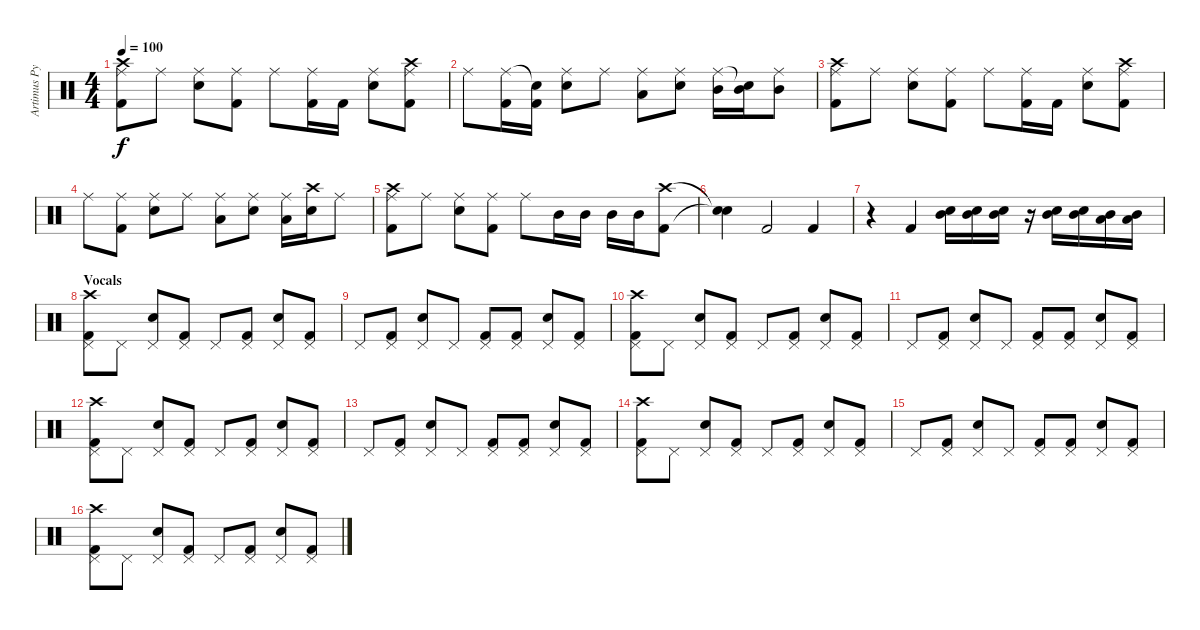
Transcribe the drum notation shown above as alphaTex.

\track ("Artimus Pyle " "Artimus Py") {instrument percussion}
\staff {score}
\articulation defaults
\ts (4 4)
\tempo 100
\clef neutral
\ks c
("Crash high (hit)" "Ride (middle)" "Kick (hit) 2").8{dy f} "Ride (middle)".8 ("Ride (middle)" "Electric Snare (hit)").8 ("Ride (middle)" "Kick (hit) 2").8 "Ride (middle)".8 ("Ride (middle)" "Kick (hit) 2").16 "Kick (hit) 2".16 ("Ride (middle)" "Electric Snare (hit)").8 ("Crash high (hit)" "Ride (middle)" "Kick (hit) 2").8 |
"Ride (middle)".8 ("Ride (middle)" "Kick (hit) 2").16 ("Snare (hit)"{t} "Kick (hit) 2").16 ("Ride (middle)" "Electric Snare (hit)").8 "Ride (middle)".8 ("Ride (middle)" "Low Tom (hit)").8 ("Ride (middle)" "Electric Snare (hit)").8 ("Ride (middle)" "Mid Tom (hit)").16 ("Snare (hit)"{t} "Mid Tom (hit)").16 ("Ride (middle)" "Mid Tom (hit)").8 |
("Crash high (hit)" "Ride (middle)" "Kick (hit) 2").8 "Ride (middle)".8 ("Ride (middle)" "Electric Snare (hit)").8 ("Ride (middle)" "Kick (hit) 2").8 "Ride (middle)".8 ("Ride (middle)" "Kick (hit) 2").16 "Kick (hit) 2".16 ("Ride (middle)" "Electric Snare (hit)").8 ("Crash high (hit)" "Ride (middle)" "Kick (hit) 2").8 |
"Ride (middle)".8 ("Ride (middle)" "Kick (hit) 2").8 ("Ride (middle)" "Electric Snare (hit)").8 "Ride (middle)".8 ("Ride (middle)" "Low Tom (hit)").8 ("Ride (middle)" "Electric Snare (hit)").8 ("Ride (middle)" "Low Tom (hit)").16 ("Crash high (hit)" "Electric Snare (hit)").16 "Ride (middle)".8 |
("Crash high (hit)" "Ride (middle)" "Kick (hit) 2").8 "Ride (middle)".8 ("Ride (middle)" "Electric Snare (hit)").8 ("Ride (middle)" "Kick (hit) 2").8 "Ride (middle)".8 "Mid Tom (hit)".16 "Mid Tom (hit)".16 "Mid Tom (hit)".16 "Mid Tom (hit)".16 ("Crash high (hit)" "Kick (hit) 2").8 |
("Snare (hit)"{t} "Snare (hit)"{t}).4 "Kick (hit) 2".2 "Kick (hit) 2".4 |
r.4 "Kick (hit) 2".4 ("Electric Snare (hit)" "Mid Tom (hit)").16 ("Electric Snare (hit)" "Mid Tom (hit)").16 ("Electric Snare (hit)" "Mid Tom (hit)").16 r.16 ("Electric Snare (hit)" "Mid Tom (hit)").16 ("Electric Snare (hit)" "Mid Tom (hit)").16 ("Low Tom (hit)" "Mid Tom (hit)").16 ("Low Tom (hit)" "Mid Tom (hit)").16 |
\section ("" "Vocals")
("Crash high (hit)" "Pedal Hi-Hat (hit)" "Kick (hit) 2").8 "Pedal Hi-Hat (hit)".8 ("Pedal Hi-Hat (hit)" "Electric Snare (hit)").8 ("Pedal Hi-Hat (hit)" "Kick (hit) 2").8 "Pedal Hi-Hat (hit)".8 ("Pedal Hi-Hat (hit)" "Kick (hit) 2").8 ("Pedal Hi-Hat (hit)" "Electric Snare (hit)").8 ("Pedal Hi-Hat (hit)" "Kick (hit) 2").8 |
"Pedal Hi-Hat (hit)".8 ("Pedal Hi-Hat (hit)" "Kick (hit) 2").8 ("Pedal Hi-Hat (hit)" "Electric Snare (hit)").8 "Pedal Hi-Hat (hit)".8 ("Pedal Hi-Hat (hit)" "Kick (hit) 2").8 ("Pedal Hi-Hat (hit)" "Kick (hit) 2").8 ("Pedal Hi-Hat (hit)" "Electric Snare (hit)").8 ("Pedal Hi-Hat (hit)" "Kick (hit) 2").8 |
("Crash high (hit)" "Pedal Hi-Hat (hit)" "Kick (hit) 2").8 "Pedal Hi-Hat (hit)".8 ("Pedal Hi-Hat (hit)" "Electric Snare (hit)").8 ("Pedal Hi-Hat (hit)" "Kick (hit) 2").8 "Pedal Hi-Hat (hit)".8 ("Pedal Hi-Hat (hit)" "Kick (hit) 2").8 ("Pedal Hi-Hat (hit)" "Electric Snare (hit)").8 ("Pedal Hi-Hat (hit)" "Kick (hit) 2").8 |
"Pedal Hi-Hat (hit)".8 ("Pedal Hi-Hat (hit)" "Kick (hit) 2").8 ("Pedal Hi-Hat (hit)" "Electric Snare (hit)").8 "Pedal Hi-Hat (hit)".8 ("Pedal Hi-Hat (hit)" "Kick (hit) 2").8 ("Pedal Hi-Hat (hit)" "Kick (hit) 2").8 ("Pedal Hi-Hat (hit)" "Electric Snare (hit)").8 ("Pedal Hi-Hat (hit)" "Kick (hit) 2").8 |
("Crash high (hit)" "Pedal Hi-Hat (hit)" "Kick (hit) 2").8 "Pedal Hi-Hat (hit)".8 ("Pedal Hi-Hat (hit)" "Electric Snare (hit)").8 ("Pedal Hi-Hat (hit)" "Kick (hit) 2").8 "Pedal Hi-Hat (hit)".8 ("Pedal Hi-Hat (hit)" "Kick (hit) 2").8 ("Pedal Hi-Hat (hit)" "Electric Snare (hit)").8 ("Pedal Hi-Hat (hit)" "Kick (hit) 2").8 |
"Pedal Hi-Hat (hit)".8 ("Pedal Hi-Hat (hit)" "Kick (hit) 2").8 ("Pedal Hi-Hat (hit)" "Electric Snare (hit)").8 "Pedal Hi-Hat (hit)".8 ("Pedal Hi-Hat (hit)" "Kick (hit) 2").8 ("Pedal Hi-Hat (hit)" "Kick (hit) 2").8 ("Pedal Hi-Hat (hit)" "Electric Snare (hit)").8 ("Pedal Hi-Hat (hit)" "Kick (hit) 2").8 |
("Crash high (hit)" "Pedal Hi-Hat (hit)" "Kick (hit) 2").8 "Pedal Hi-Hat (hit)".8 ("Pedal Hi-Hat (hit)" "Electric Snare (hit)").8 ("Pedal Hi-Hat (hit)" "Kick (hit) 2").8 "Pedal Hi-Hat (hit)".8 ("Pedal Hi-Hat (hit)" "Kick (hit) 2").8 ("Pedal Hi-Hat (hit)" "Electric Snare (hit)").8 ("Pedal Hi-Hat (hit)" "Kick (hit) 2").8 |
"Pedal Hi-Hat (hit)".8 ("Pedal Hi-Hat (hit)" "Kick (hit) 2").8 ("Pedal Hi-Hat (hit)" "Electric Snare (hit)").8 "Pedal Hi-Hat (hit)".8 ("Pedal Hi-Hat (hit)" "Kick (hit) 2").8 ("Pedal Hi-Hat (hit)" "Kick (hit) 2").8 ("Pedal Hi-Hat (hit)" "Electric Snare (hit)").8 ("Pedal Hi-Hat (hit)" "Kick (hit) 2").8 |
("Crash high (hit)" "Pedal Hi-Hat (hit)" "Kick (hit) 2").8 "Pedal Hi-Hat (hit)".8 ("Pedal Hi-Hat (hit)" "Electric Snare (hit)").8 ("Pedal Hi-Hat (hit)" "Kick (hit) 2").8 "Pedal Hi-Hat (hit)".8 ("Pedal Hi-Hat (hit)" "Kick (hit) 2").8 ("Pedal Hi-Hat (hit)" "Electric Snare (hit)").8 ("Pedal Hi-Hat (hit)" "Kick (hit) 2").8
